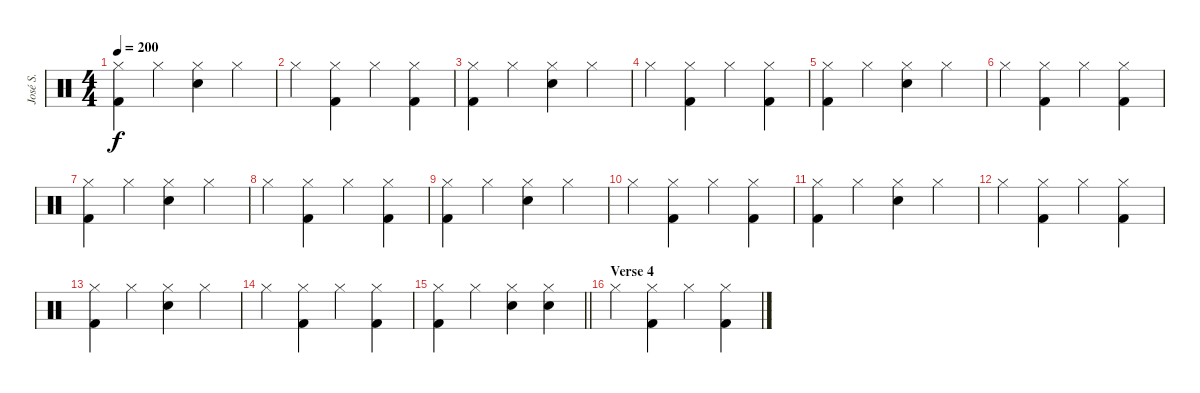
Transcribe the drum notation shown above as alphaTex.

\track ("José S." "José S.") {instrument percussion}
\staff {score}
\articulation defaults
\ts (4 4)
\tempo 200
\clef neutral
\ks c
("Hi-Hat (closed)" "Kick (hit) 2").4{dy f} "Hi-Hat (closed)".4 ("Hi-Hat (closed)" "Snare (hit) 2").4 "Hi-Hat (closed)".4 |
"Hi-Hat (closed)".4 ("Hi-Hat (closed)" "Kick (hit) 2").4 "Hi-Hat (closed)".4 ("Hi-Hat (closed)" "Kick (hit) 2").4 |
("Hi-Hat (closed)" "Kick (hit) 2").4 "Hi-Hat (closed)".4 ("Hi-Hat (closed)" "Snare (hit) 2").4 "Hi-Hat (closed)".4 |
"Hi-Hat (closed)".4 ("Hi-Hat (closed)" "Kick (hit) 2").4 "Hi-Hat (closed)".4 ("Hi-Hat (closed)" "Kick (hit) 2").4 |
("Hi-Hat (closed)" "Kick (hit) 2").4 "Hi-Hat (closed)".4 ("Hi-Hat (closed)" "Snare (hit) 2").4 "Hi-Hat (closed)".4 |
"Hi-Hat (closed)".4 ("Hi-Hat (closed)" "Kick (hit) 2").4 "Hi-Hat (closed)".4 ("Hi-Hat (closed)" "Kick (hit) 2").4 |
("Hi-Hat (closed)" "Kick (hit) 2").4 "Hi-Hat (closed)".4 ("Hi-Hat (closed)" "Snare (hit) 2").4 "Hi-Hat (closed)".4 |
"Hi-Hat (closed)".4 ("Hi-Hat (closed)" "Kick (hit) 2").4 "Hi-Hat (closed)".4 ("Hi-Hat (closed)" "Kick (hit) 2").4 |
("Hi-Hat (closed)" "Kick (hit) 2").4 "Hi-Hat (closed)".4 ("Hi-Hat (closed)" "Snare (hit) 2").4 "Hi-Hat (closed)".4 |
"Hi-Hat (closed)".4 ("Hi-Hat (closed)" "Kick (hit) 2").4 "Hi-Hat (closed)".4 ("Hi-Hat (closed)" "Kick (hit) 2").4 |
("Hi-Hat (closed)" "Kick (hit) 2").4 "Hi-Hat (closed)".4 ("Hi-Hat (closed)" "Snare (hit) 2").4 "Hi-Hat (closed)".4 |
"Hi-Hat (closed)".4 ("Hi-Hat (closed)" "Kick (hit) 2").4 "Hi-Hat (closed)".4 ("Hi-Hat (closed)" "Kick (hit) 2").4 |
("Hi-Hat (closed)" "Kick (hit) 2").4 "Hi-Hat (closed)".4 ("Hi-Hat (closed)" "Snare (hit) 2").4 "Hi-Hat (closed)".4 |
"Hi-Hat (closed)".4 ("Hi-Hat (closed)" "Kick (hit) 2").4 "Hi-Hat (closed)".4 ("Hi-Hat (closed)" "Kick (hit) 2").4 |
\barLineRight lightlight
("Hi-Hat (closed)" "Kick (hit) 2").4 "Hi-Hat (closed)".4 ("Hi-Hat (closed)" "Snare (hit) 2").4 ("Hi-Hat (closed)" "Snare (hit) 2").4 |
\section ("" "Verse 4")
"Hi-Hat (closed)".4 ("Hi-Hat (closed)" "Kick (hit) 2").4 "Hi-Hat (closed)".4 ("Hi-Hat (closed)" "Kick (hit) 2").4
